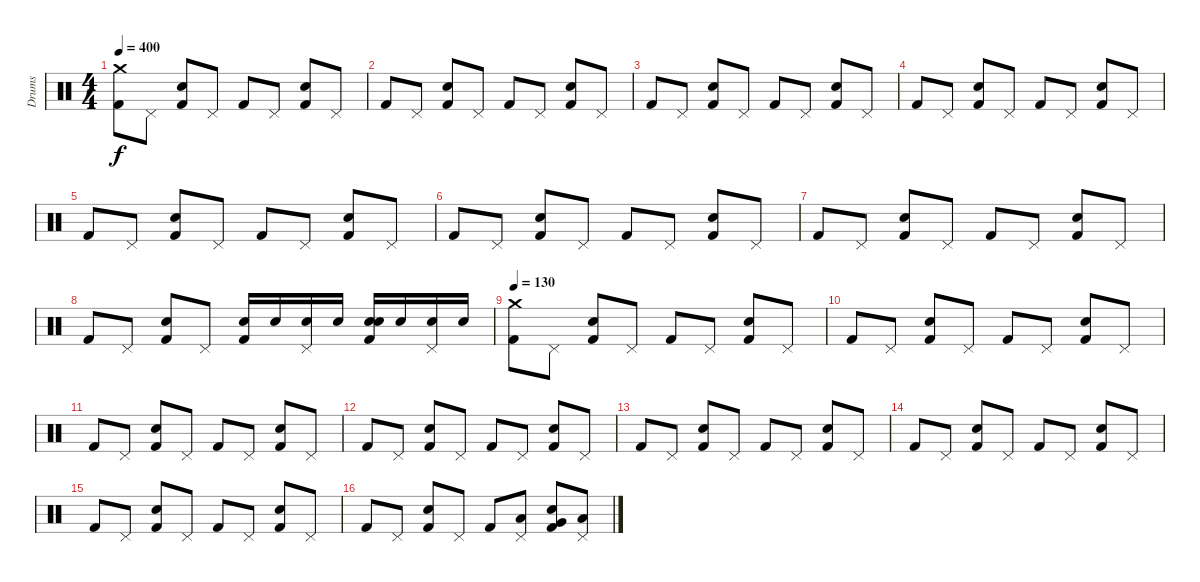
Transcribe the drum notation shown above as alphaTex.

\track ("Drums" "Drums") {instrument percussion}
\staff {score}
\articulation defaults
\ts (4 4)
\tempo 400
\clef neutral
\ks c
("Crash medium (hit)" "Kick (hit) 2").8{dy f} "Pedal Hi-Hat (hit)".8 ("Snare (hit) 2" "Kick (hit) 2").8 "Pedal Hi-Hat (hit)".8 "Kick (hit) 2".8 "Pedal Hi-Hat (hit)".8 ("Snare (hit) 2" "Kick (hit) 2").8 "Pedal Hi-Hat (hit)".8 |
"Kick (hit) 2".8 "Pedal Hi-Hat (hit)".8 ("Snare (hit) 2" "Kick (hit) 2").8 "Pedal Hi-Hat (hit)".8 "Kick (hit) 2".8 "Pedal Hi-Hat (hit)".8 ("Snare (hit) 2" "Kick (hit) 2").8 "Pedal Hi-Hat (hit)".8 |
"Kick (hit) 2".8 "Pedal Hi-Hat (hit)".8 ("Snare (hit) 2" "Kick (hit) 2").8 "Pedal Hi-Hat (hit)".8 "Kick (hit) 2".8 "Pedal Hi-Hat (hit)".8 ("Snare (hit) 2" "Kick (hit) 2").8 "Pedal Hi-Hat (hit)".8 |
"Kick (hit) 2".8 "Pedal Hi-Hat (hit)".8 ("Snare (hit) 2" "Kick (hit) 2").8 "Pedal Hi-Hat (hit)".8 "Kick (hit) 2".8 "Pedal Hi-Hat (hit)".8 ("Snare (hit) 2" "Kick (hit) 2").8 "Pedal Hi-Hat (hit)".8 |
"Kick (hit) 2".8 "Pedal Hi-Hat (hit)".8 ("Snare (hit) 2" "Kick (hit) 2").8 "Pedal Hi-Hat (hit)".8 "Kick (hit) 2".8 "Pedal Hi-Hat (hit)".8 ("Snare (hit) 2" "Kick (hit) 2").8 "Pedal Hi-Hat (hit)".8 |
"Kick (hit) 2".8 "Pedal Hi-Hat (hit)".8 ("Snare (hit) 2" "Kick (hit) 2").8 "Pedal Hi-Hat (hit)".8 "Kick (hit) 2".8 "Pedal Hi-Hat (hit)".8 ("Snare (hit) 2" "Kick (hit) 2").8 "Pedal Hi-Hat (hit)".8 |
"Kick (hit) 2".8 "Pedal Hi-Hat (hit)".8 ("Snare (hit) 2" "Kick (hit) 2").8 "Pedal Hi-Hat (hit)".8 "Kick (hit) 2".8 "Pedal Hi-Hat (hit)".8 ("Snare (hit) 2" "Kick (hit) 2").8 "Pedal Hi-Hat (hit)".8 |
"Kick (hit) 2".8 "Pedal Hi-Hat (hit)".8 ("Snare (hit) 2" "Kick (hit) 2").8 "Pedal Hi-Hat (hit)".8 ("Electric Snare (hit)" "Kick (hit) 2").16 "Electric Snare (hit)".16 ("Pedal Hi-Hat (hit)" "Electric Snare (hit)").16 "Electric Snare (hit)".16 ("Electric Snare (hit)" "Snare (hit) 2" "Kick (hit) 2").16 "Electric Snare (hit)".16 ("Pedal Hi-Hat (hit)" "Electric Snare (hit)").16 "Electric Snare (hit)".16 |
\tempo 130
("Crash medium (hit)" "Kick (hit) 2").8 "Pedal Hi-Hat (hit)".8 ("Snare (hit) 2" "Kick (hit) 2").8 "Pedal Hi-Hat (hit)".8 "Kick (hit) 2".8 "Pedal Hi-Hat (hit)".8 ("Snare (hit) 2" "Kick (hit) 2").8 "Pedal Hi-Hat (hit)".8 |
"Kick (hit) 2".8 "Pedal Hi-Hat (hit)".8 ("Snare (hit) 2" "Kick (hit) 2").8 "Pedal Hi-Hat (hit)".8 "Kick (hit) 2".8 "Pedal Hi-Hat (hit)".8 ("Snare (hit) 2" "Kick (hit) 2").8 "Pedal Hi-Hat (hit)".8 |
"Kick (hit) 2".8 "Pedal Hi-Hat (hit)".8 ("Snare (hit) 2" "Kick (hit) 2").8 "Pedal Hi-Hat (hit)".8 "Kick (hit) 2".8 "Pedal Hi-Hat (hit)".8 ("Snare (hit) 2" "Kick (hit) 2").8 "Pedal Hi-Hat (hit)".8 |
"Kick (hit) 2".8 "Pedal Hi-Hat (hit)".8 ("Snare (hit) 2" "Kick (hit) 2").8 "Pedal Hi-Hat (hit)".8 "Kick (hit) 2".8 "Pedal Hi-Hat (hit)".8 ("Snare (hit) 2" "Kick (hit) 2").8 "Pedal Hi-Hat (hit)".8 |
"Kick (hit) 2".8 "Pedal Hi-Hat (hit)".8 ("Snare (hit) 2" "Kick (hit) 2").8 "Pedal Hi-Hat (hit)".8 "Kick (hit) 2".8 "Pedal Hi-Hat (hit)".8 ("Snare (hit) 2" "Kick (hit) 2").8 "Pedal Hi-Hat (hit)".8 |
"Kick (hit) 2".8 "Pedal Hi-Hat (hit)".8 ("Snare (hit) 2" "Kick (hit) 2").8 "Pedal Hi-Hat (hit)".8 "Kick (hit) 2".8 "Pedal Hi-Hat (hit)".8 ("Snare (hit) 2" "Kick (hit) 2").8 "Pedal Hi-Hat (hit)".8 |
"Kick (hit) 2".8 "Pedal Hi-Hat (hit)".8 ("Snare (hit) 2" "Kick (hit) 2").8 "Pedal Hi-Hat (hit)".8 "Kick (hit) 2".8 "Pedal Hi-Hat (hit)".8 ("Snare (hit) 2" "Kick (hit) 2").8 "Pedal Hi-Hat (hit)".8 |
"Kick (hit) 2".8 "Pedal Hi-Hat (hit)".8 ("Snare (hit) 2" "Kick (hit) 2").8 "Pedal Hi-Hat (hit)".8 "Kick (hit) 2".8 ("Low Tom (hit)" "Pedal Hi-Hat (hit)").8 ("Very Low Tom (hit)" "Snare (hit) 2" "Kick (hit) 2").8 ("Pedal Hi-Hat (hit)" "Low Floor Tom (hit)").8
